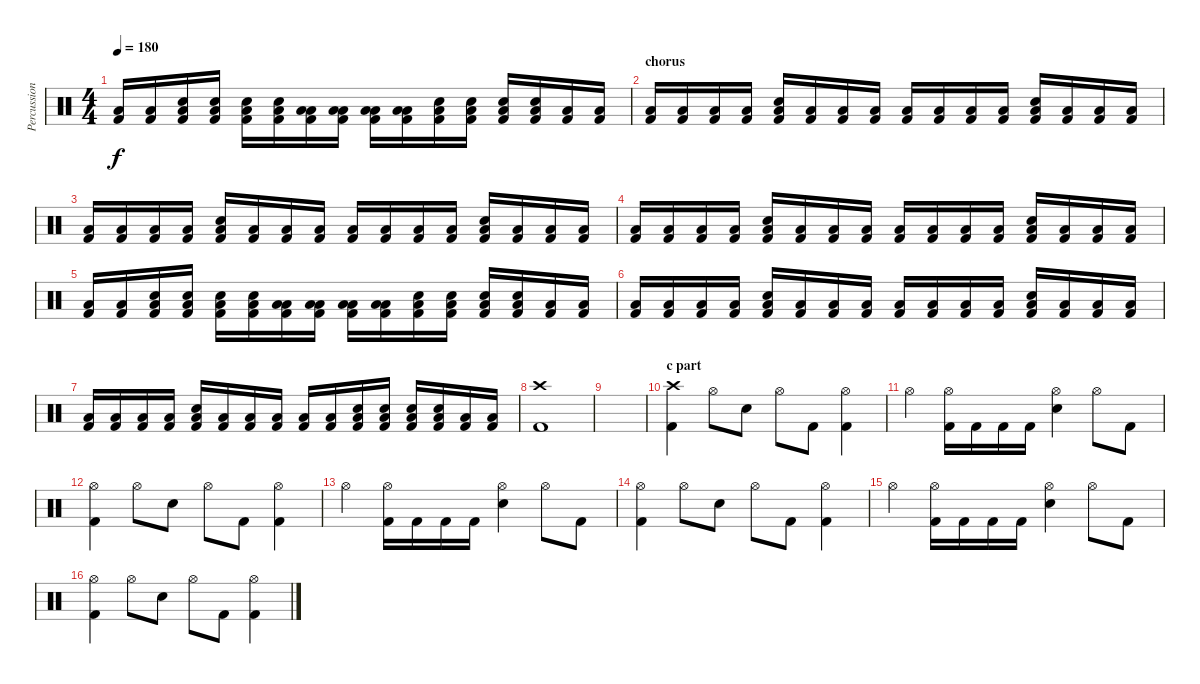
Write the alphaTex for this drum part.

\track ("Percussion" "Percussion") {instrument percussion}
\staff {score}
\articulation defaults
\ts (4 4)
\tempo 180
\clef neutral
\ks c
("Low Floor Tom (hit)" "Kick (hit) 2").16{dy f} ("Low Floor Tom (hit)" "Kick (hit) 2").16 ("Snare (hit) 2" "Low Floor Tom (hit)" "Kick (hit) 2").16 ("Snare (hit) 2" "Low Floor Tom (hit)" "Kick (hit) 2").16 ("Snare (hit) 2" "Low Floor Tom (hit)" "Kick (hit) 2").16 ("Snare (hit) 2" "Low Floor Tom (hit)" "Kick (hit) 2").16 ("Low Tom (hit)" "Low Floor Tom (hit)" "Kick (hit) 2").16 ("Low Tom (hit)" "Low Floor Tom (hit)" "Kick (hit) 2").16 ("Low Tom (hit)" "Low Floor Tom (hit)" "Kick (hit) 2").16 ("Low Tom (hit)" "Low Floor Tom (hit)" "Kick (hit) 2").16 ("Snare (hit) 2" "Low Floor Tom (hit)" "Kick (hit) 2").16 ("Snare (hit) 2" "Low Floor Tom (hit)" "Kick (hit) 2").16 ("Snare (hit) 2" "Low Floor Tom (hit)" "Kick (hit) 2").16 ("Snare (hit) 2" "Low Floor Tom (hit)" "Kick (hit) 2").16 ("Low Floor Tom (hit)" "Kick (hit) 2").16 ("Low Floor Tom (hit)" "Kick (hit) 2").16 |
\section ("" "chorus")
("Low Floor Tom (hit)" "Kick (hit) 2").16 ("Low Floor Tom (hit)" "Kick (hit) 2").16 ("Low Floor Tom (hit)" "Kick (hit) 2").16 ("Low Floor Tom (hit)" "Kick (hit) 2").16 ("Snare (hit) 2" "Low Floor Tom (hit)" "Kick (hit) 2").16 ("Low Floor Tom (hit)" "Kick (hit) 2").16 ("Low Floor Tom (hit)" "Kick (hit) 2").16 ("Low Floor Tom (hit)" "Kick (hit) 2").16 ("Low Floor Tom (hit)" "Kick (hit) 2").16 ("Low Floor Tom (hit)" "Kick (hit) 2").16 ("Low Floor Tom (hit)" "Kick (hit) 2").16 ("Low Floor Tom (hit)" "Kick (hit) 2").16 ("Snare (hit) 2" "Low Floor Tom (hit)" "Kick (hit) 2").16 ("Low Floor Tom (hit)" "Kick (hit) 2").16 ("Low Floor Tom (hit)" "Kick (hit) 2").16 ("Low Floor Tom (hit)" "Kick (hit) 2").16 |
("Low Floor Tom (hit)" "Kick (hit) 2").16 ("Low Floor Tom (hit)" "Kick (hit) 2").16 ("Low Floor Tom (hit)" "Kick (hit) 2").16 ("Low Floor Tom (hit)" "Kick (hit) 2").16 ("Snare (hit) 2" "Low Floor Tom (hit)" "Kick (hit) 2").16 ("Low Floor Tom (hit)" "Kick (hit) 2").16 ("Low Floor Tom (hit)" "Kick (hit) 2").16 ("Low Floor Tom (hit)" "Kick (hit) 2").16 ("Low Floor Tom (hit)" "Kick (hit) 2").16 ("Low Floor Tom (hit)" "Kick (hit) 2").16 ("Low Floor Tom (hit)" "Kick (hit) 2").16 ("Low Floor Tom (hit)" "Kick (hit) 2").16 ("Snare (hit) 2" "Low Floor Tom (hit)" "Kick (hit) 2").16 ("Low Floor Tom (hit)" "Kick (hit) 2").16 ("Low Floor Tom (hit)" "Kick (hit) 2").16 ("Low Floor Tom (hit)" "Kick (hit) 2").16 |
("Low Floor Tom (hit)" "Kick (hit) 2").16 ("Low Floor Tom (hit)" "Kick (hit) 2").16 ("Low Floor Tom (hit)" "Kick (hit) 2").16 ("Low Floor Tom (hit)" "Kick (hit) 2").16 ("Snare (hit) 2" "Low Floor Tom (hit)" "Kick (hit) 2").16 ("Low Floor Tom (hit)" "Kick (hit) 2").16 ("Low Floor Tom (hit)" "Kick (hit) 2").16 ("Low Floor Tom (hit)" "Kick (hit) 2").16 ("Low Floor Tom (hit)" "Kick (hit) 2").16 ("Low Floor Tom (hit)" "Kick (hit) 2").16 ("Low Floor Tom (hit)" "Kick (hit) 2").16 ("Low Floor Tom (hit)" "Kick (hit) 2").16 ("Snare (hit) 2" "Low Floor Tom (hit)" "Kick (hit) 2").16 ("Low Floor Tom (hit)" "Kick (hit) 2").16 ("Low Floor Tom (hit)" "Kick (hit) 2").16 ("Low Floor Tom (hit)" "Kick (hit) 2").16 |
("Low Floor Tom (hit)" "Kick (hit) 2").16 ("Low Floor Tom (hit)" "Kick (hit) 2").16 ("Snare (hit) 2" "Low Floor Tom (hit)" "Kick (hit) 2").16 ("Snare (hit) 2" "Low Floor Tom (hit)" "Kick (hit) 2").16 ("Snare (hit) 2" "Low Floor Tom (hit)" "Kick (hit) 2").16 ("Snare (hit) 2" "Low Floor Tom (hit)" "Kick (hit) 2").16 ("Low Tom (hit)" "Low Floor Tom (hit)" "Kick (hit) 2").16 ("Low Tom (hit)" "Low Floor Tom (hit)" "Kick (hit) 2").16 ("Low Tom (hit)" "Low Floor Tom (hit)" "Kick (hit) 2").16 ("Low Tom (hit)" "Low Floor Tom (hit)" "Kick (hit) 2").16 ("Snare (hit) 2" "Low Floor Tom (hit)" "Kick (hit) 2").16 ("Snare (hit) 2" "Low Floor Tom (hit)" "Kick (hit) 2").16 ("Snare (hit) 2" "Low Floor Tom (hit)" "Kick (hit) 2").16 ("Snare (hit) 2" "Low Floor Tom (hit)" "Kick (hit) 2").16 ("Low Floor Tom (hit)" "Kick (hit) 2").16 ("Low Floor Tom (hit)" "Kick (hit) 2").16 |
("Low Floor Tom (hit)" "Kick (hit) 2").16 ("Low Floor Tom (hit)" "Kick (hit) 2").16 ("Low Floor Tom (hit)" "Kick (hit) 2").16 ("Low Floor Tom (hit)" "Kick (hit) 2").16 ("Snare (hit) 2" "Low Floor Tom (hit)" "Kick (hit) 2").16 ("Low Floor Tom (hit)" "Kick (hit) 2").16 ("Low Floor Tom (hit)" "Kick (hit) 2").16 ("Low Floor Tom (hit)" "Kick (hit) 2").16 ("Low Floor Tom (hit)" "Kick (hit) 2").16 ("Low Floor Tom (hit)" "Kick (hit) 2").16 ("Low Floor Tom (hit)" "Kick (hit) 2").16 ("Low Floor Tom (hit)" "Kick (hit) 2").16 ("Snare (hit) 2" "Low Floor Tom (hit)" "Kick (hit) 2").16 ("Low Floor Tom (hit)" "Kick (hit) 2").16 ("Low Floor Tom (hit)" "Kick (hit) 2").16 ("Low Floor Tom (hit)" "Kick (hit) 2").16 |
("Low Floor Tom (hit)" "Kick (hit) 2").16 ("Low Floor Tom (hit)" "Kick (hit) 2").16 ("Low Floor Tom (hit)" "Kick (hit) 2").16 ("Low Floor Tom (hit)" "Kick (hit) 2").16 ("Snare (hit) 2" "Low Floor Tom (hit)" "Kick (hit) 2").16 ("Low Floor Tom (hit)" "Kick (hit) 2").16 ("Low Floor Tom (hit)" "Kick (hit) 2").16 ("Low Floor Tom (hit)" "Kick (hit) 2").16 ("Low Floor Tom (hit)" "Kick (hit) 2").16 ("Low Floor Tom (hit)" "Kick (hit) 2").16 ("Snare (hit) 2" "Low Floor Tom (hit)" "Kick (hit) 2").16 ("Snare (hit) 2" "Low Floor Tom (hit)" "Kick (hit) 2").16 ("Snare (hit) 2" "Low Floor Tom (hit)" "Kick (hit) 2").16 ("Snare (hit) 2" "Low Floor Tom (hit)" "Kick (hit) 2").16 ("Low Floor Tom (hit)" "Kick (hit) 2").16 ("Low Floor Tom (hit)" "Kick (hit) 2").16 |
("Crash high (hit)" "Kick (hit) 2").1 |
|
\section ("" "c part")
("Crash high (hit)" "Kick (hit) 2").4 "Hi-Hat (open)".8 "Snare (hit) 2".8 "Hi-Hat (open)".8 "Kick (hit) 2".8 ("Hi-Hat (open)" "Kick (hit) 2").4 |
"Hi-Hat (open)".4 ("Hi-Hat (open)" "Kick (hit) 2").16 "Kick (hit) 2".16 "Kick (hit) 2".16 "Kick (hit) 2".16 ("Hi-Hat (open)" "Snare (hit) 2").4 "Hi-Hat (open)".8 "Kick (hit) 2".8 |
("Hi-Hat (open)" "Kick (hit) 2").4 "Hi-Hat (open)".8 "Snare (hit) 2".8 "Hi-Hat (open)".8 "Kick (hit) 2".8 ("Hi-Hat (open)" "Kick (hit) 2").4 |
"Hi-Hat (open)".4 ("Hi-Hat (open)" "Kick (hit) 2").16 "Kick (hit) 2".16 "Kick (hit) 2".16 "Kick (hit) 2".16 ("Hi-Hat (open)" "Snare (hit) 2").4 "Hi-Hat (open)".8 "Kick (hit) 2".8 |
("Hi-Hat (open)" "Kick (hit) 2").4 "Hi-Hat (open)".8 "Snare (hit) 2".8 "Hi-Hat (open)".8 "Kick (hit) 2".8 ("Hi-Hat (open)" "Kick (hit) 2").4 |
"Hi-Hat (open)".4 ("Hi-Hat (open)" "Kick (hit) 2").16 "Kick (hit) 2".16 "Kick (hit) 2".16 "Kick (hit) 2".16 ("Hi-Hat (open)" "Snare (hit) 2").4 "Hi-Hat (open)".8 "Kick (hit) 2".8 |
("Hi-Hat (open)" "Kick (hit) 2").4 "Hi-Hat (open)".8 "Snare (hit) 2".8 "Hi-Hat (open)".8 "Kick (hit) 2".8 ("Hi-Hat (open)" "Kick (hit) 2").4
